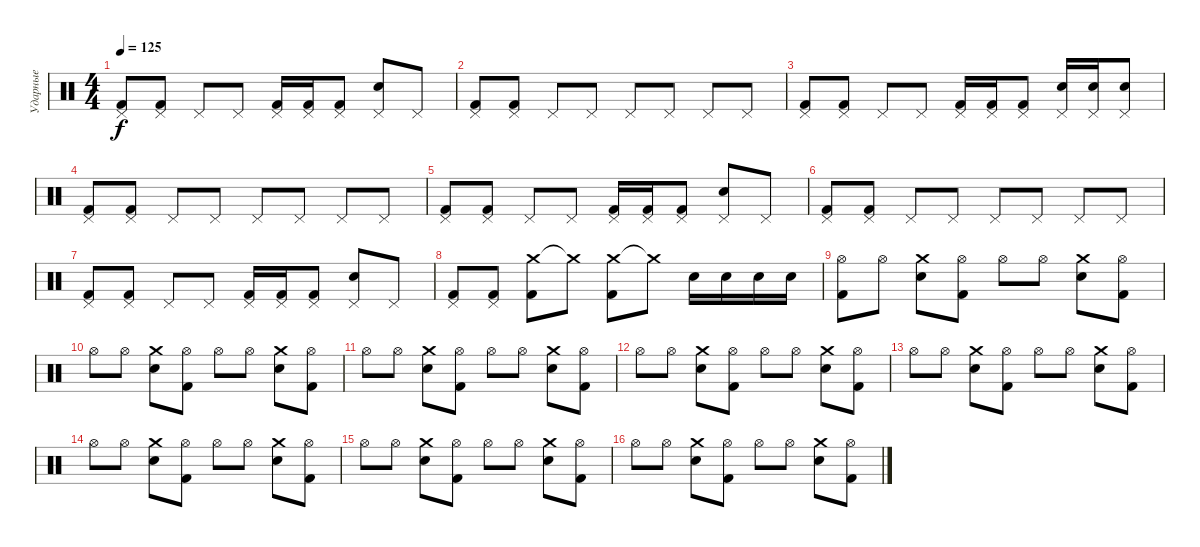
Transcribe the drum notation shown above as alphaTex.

\track ("Ударные" "Ударные") {instrument percussion}
\staff {score}
\articulation defaults
\ts (4 4)
\tempo 125
\clef neutral
\ks c
("Pedal Hi-Hat (hit)" "Kick (hit) 2").8{dy f} ("Pedal Hi-Hat (hit)" "Kick (hit) 2").8 "Pedal Hi-Hat (hit)".8 "Pedal Hi-Hat (hit)".8 ("Pedal Hi-Hat (hit)" "Kick (hit) 2").16 ("Pedal Hi-Hat (hit)" "Kick (hit) 2").16 ("Pedal Hi-Hat (hit)" "Kick (hit) 2").8 ("Pedal Hi-Hat (hit)" "Electric Snare (hit)").8 "Pedal Hi-Hat (hit)".8 |
("Pedal Hi-Hat (hit)" "Kick (hit) 2").8 ("Pedal Hi-Hat (hit)" "Kick (hit) 2").8 "Pedal Hi-Hat (hit)".8 "Pedal Hi-Hat (hit)".8 "Pedal Hi-Hat (hit)".8 "Pedal Hi-Hat (hit)".8 "Pedal Hi-Hat (hit)".8 "Pedal Hi-Hat (hit)".8 |
("Pedal Hi-Hat (hit)" "Kick (hit) 2").8 ("Pedal Hi-Hat (hit)" "Kick (hit) 2").8 "Pedal Hi-Hat (hit)".8 "Pedal Hi-Hat (hit)".8 ("Pedal Hi-Hat (hit)" "Kick (hit) 2").16 ("Pedal Hi-Hat (hit)" "Kick (hit) 2").16 ("Pedal Hi-Hat (hit)" "Kick (hit) 2").8 ("Pedal Hi-Hat (hit)" "Electric Snare (hit)").16 ("Pedal Hi-Hat (hit)" "Electric Snare (hit)").16 ("Pedal Hi-Hat (hit)" "Electric Snare (hit)").8 |
("Pedal Hi-Hat (hit)" "Kick (hit) 2").8 ("Pedal Hi-Hat (hit)" "Kick (hit) 2").8 "Pedal Hi-Hat (hit)".8 "Pedal Hi-Hat (hit)".8 "Pedal Hi-Hat (hit)".8 "Pedal Hi-Hat (hit)".8 "Pedal Hi-Hat (hit)".8 "Pedal Hi-Hat (hit)".8 |
("Pedal Hi-Hat (hit)" "Kick (hit) 2").8 ("Pedal Hi-Hat (hit)" "Kick (hit) 2").8 "Pedal Hi-Hat (hit)".8 "Pedal Hi-Hat (hit)".8 ("Pedal Hi-Hat (hit)" "Kick (hit) 2").16 ("Pedal Hi-Hat (hit)" "Kick (hit) 2").16 ("Pedal Hi-Hat (hit)" "Kick (hit) 2").8 ("Pedal Hi-Hat (hit)" "Electric Snare (hit)").8 "Pedal Hi-Hat (hit)".8 |
("Pedal Hi-Hat (hit)" "Kick (hit) 2").8 ("Pedal Hi-Hat (hit)" "Kick (hit) 2").8 "Pedal Hi-Hat (hit)".8 "Pedal Hi-Hat (hit)".8 "Pedal Hi-Hat (hit)".8 "Pedal Hi-Hat (hit)".8 "Pedal Hi-Hat (hit)".8 "Pedal Hi-Hat (hit)".8 |
("Pedal Hi-Hat (hit)" "Kick (hit) 2").8 ("Pedal Hi-Hat (hit)" "Kick (hit) 2").8 "Pedal Hi-Hat (hit)".8 "Pedal Hi-Hat (hit)".8 ("Pedal Hi-Hat (hit)" "Kick (hit) 2").16 ("Pedal Hi-Hat (hit)" "Kick (hit) 2").16 ("Pedal Hi-Hat (hit)" "Kick (hit) 2").8 ("Pedal Hi-Hat (hit)" "Electric Snare (hit)").8 "Pedal Hi-Hat (hit)".8 |
("Pedal Hi-Hat (hit)" "Kick (hit) 2").8 ("Pedal Hi-Hat (hit)" "Kick (hit) 2").8 ("Crash medium (hit)" "Kick (hit) 2").8 "Crash medium (hit)"{t}.8 ("Crash medium (hit)" "Kick (hit) 2").8 "Crash medium (hit)"{t}.8 "Electric Snare (hit)".16 "Electric Snare (hit)".16 "Electric Snare (hit)".16 "Electric Snare (hit)".16 |
("Hi-Hat (open)" "Kick (hit) 2").8 "Hi-Hat (open)".8 ("Crash medium (hit)" "Electric Snare (hit)").8 ("Hi-Hat (open)" "Kick (hit) 2").8 "Hi-Hat (open)".8 "Hi-Hat (open)".8 ("Crash medium (hit)" "Electric Snare (hit)").8 ("Hi-Hat (open)" "Kick (hit) 2").8 |
"Hi-Hat (open)".8 "Hi-Hat (open)".8 ("Crash medium (hit)" "Electric Snare (hit)").8 ("Hi-Hat (open)" "Kick (hit) 2").8 "Hi-Hat (open)".8 "Hi-Hat (open)".8 ("Crash medium (hit)" "Electric Snare (hit)").8 ("Hi-Hat (open)" "Kick (hit) 2").8 |
"Hi-Hat (open)".8 "Hi-Hat (open)".8 ("Crash medium (hit)" "Electric Snare (hit)").8 ("Hi-Hat (open)" "Kick (hit) 2").8 "Hi-Hat (open)".8 "Hi-Hat (open)".8 ("Crash medium (hit)" "Electric Snare (hit)").8 ("Hi-Hat (open)" "Kick (hit) 2").8 |
"Hi-Hat (open)".8 "Hi-Hat (open)".8 ("Crash medium (hit)" "Electric Snare (hit)").8 ("Hi-Hat (open)" "Kick (hit) 2").8 "Hi-Hat (open)".8 "Hi-Hat (open)".8 ("Crash medium (hit)" "Electric Snare (hit)").8 ("Hi-Hat (open)" "Kick (hit) 2").8 |
"Hi-Hat (open)".8 "Hi-Hat (open)".8 ("Crash medium (hit)" "Electric Snare (hit)").8 ("Hi-Hat (open)" "Kick (hit) 2").8 "Hi-Hat (open)".8 "Hi-Hat (open)".8 ("Crash medium (hit)" "Electric Snare (hit)").8 ("Hi-Hat (open)" "Kick (hit) 2").8 |
"Hi-Hat (open)".8 "Hi-Hat (open)".8 ("Crash medium (hit)" "Electric Snare (hit)").8 ("Hi-Hat (open)" "Kick (hit) 2").8 "Hi-Hat (open)".8 "Hi-Hat (open)".8 ("Crash medium (hit)" "Electric Snare (hit)").8 ("Hi-Hat (open)" "Kick (hit) 2").8 |
"Hi-Hat (open)".8 "Hi-Hat (open)".8 ("Crash medium (hit)" "Electric Snare (hit)").8 ("Hi-Hat (open)" "Kick (hit) 2").8 "Hi-Hat (open)".8 "Hi-Hat (open)".8 ("Crash medium (hit)" "Electric Snare (hit)").8 ("Hi-Hat (open)" "Kick (hit) 2").8 |
"Hi-Hat (open)".8 "Hi-Hat (open)".8 ("Crash medium (hit)" "Electric Snare (hit)").8 ("Hi-Hat (open)" "Kick (hit) 2").8 "Hi-Hat (open)".8 "Hi-Hat (open)".8 ("Crash medium (hit)" "Electric Snare (hit)").8 ("Hi-Hat (open)" "Kick (hit) 2").8
